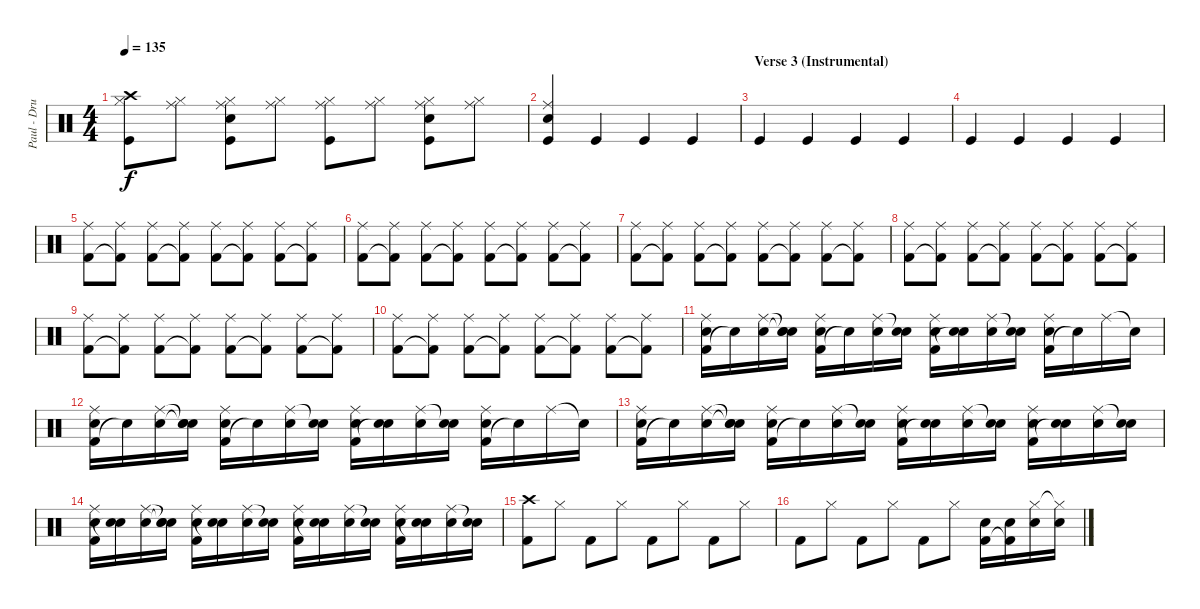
\track ("Paul - Drums" "Paul - Dru") {instrument percussion}
\staff {score}
\articulation defaults
\ts (4 4)
\tempo 135
\clef neutral
\ks c
("Kick (hit)" "Hi-Hat (closed)" "Crash high (hit)").8{dy f} ("Hi-Hat (closed)" "Ride (middle)").8 ("Kick (hit)" "Hi-Hat (closed)" "Snare (hit) 2" "Ride (middle)").8 ("Hi-Hat (closed)" "Ride (middle)").8 ("Kick (hit)" "Hi-Hat (closed)" "Ride (middle)").8 ("Hi-Hat (closed)" "Ride (middle)").8 ("Kick (hit)" "Hi-Hat (closed)" "Snare (hit) 2" "Ride (middle)").8 ("Hi-Hat (closed)" "Ride (middle)").8 |
("Kick (hit)" "Snare (hit) 2" "Ride (middle)").4 "Kick (hit)".4 "Kick (hit)".4 "Kick (hit)".4 |
\section ("" "Verse 3 (Instrumental)")
"Kick (hit)".4 "Kick (hit)".4 "Kick (hit)".4 "Kick (hit)".4 |
"Kick (hit)".4 "Kick (hit)".4 "Kick (hit)".4 "Kick (hit)".4 |
("Kick (hit) 2" "Ride (middle)").8 ("Kick (hit) 2"{t} "Ride (middle)").8 ("Kick (hit) 2" "Ride (middle)").8 ("Kick (hit) 2"{t} "Ride (middle)").8 ("Kick (hit) 2" "Ride (middle)").8 ("Kick (hit) 2"{t} "Ride (middle)").8 ("Kick (hit) 2" "Ride (middle)").8 ("Kick (hit) 2"{t} "Ride (middle)").8 |
("Kick (hit) 2" "Ride (middle)").8 ("Kick (hit) 2"{t} "Ride (middle)").8 ("Kick (hit) 2" "Ride (middle)").8 ("Kick (hit) 2"{t} "Ride (middle)").8 ("Kick (hit) 2" "Ride (middle)").8 ("Kick (hit) 2"{t} "Ride (middle)").8 ("Kick (hit) 2" "Ride (middle)").8 ("Kick (hit) 2"{t} "Ride (middle)").8 |
("Kick (hit) 2" "Ride (middle)").8 ("Kick (hit) 2"{t} "Ride (middle)").8 ("Kick (hit) 2" "Ride (middle)").8 ("Kick (hit) 2"{t} "Ride (middle)").8 ("Kick (hit) 2" "Ride (middle)").8 ("Kick (hit) 2"{t} "Ride (middle)").8 ("Kick (hit) 2" "Ride (middle)").8 ("Kick (hit) 2"{t} "Ride (middle)").8 |
("Kick (hit) 2" "Ride (middle)").8 ("Kick (hit) 2"{t} "Ride (middle)").8 ("Kick (hit) 2" "Ride (middle)").8 ("Kick (hit) 2"{t} "Ride (middle)").8 ("Kick (hit) 2" "Ride (middle)").8 ("Kick (hit) 2"{t} "Ride (middle)").8 ("Kick (hit) 2" "Ride (middle)").8 ("Kick (hit) 2"{t} "Ride (middle)").8 |
("Kick (hit) 2" "Ride (middle)").8 ("Kick (hit) 2"{t} "Ride (middle)").8 ("Kick (hit) 2" "Ride (middle)").8 ("Kick (hit) 2"{t} "Ride (middle)").8 ("Kick (hit) 2" "Ride (middle)").8 ("Kick (hit) 2"{t} "Ride (middle)").8 ("Kick (hit) 2" "Ride (middle)").8 ("Kick (hit) 2"{t} "Ride (middle)").8 |
("Kick (hit) 2" "Ride (middle)").8 ("Kick (hit) 2"{t} "Ride (middle)").8 ("Kick (hit) 2" "Ride (middle)").8 ("Kick (hit) 2"{t} "Ride (middle)").8 ("Kick (hit) 2" "Ride (middle)").8 ("Kick (hit) 2"{t} "Ride (middle)").8 ("Kick (hit) 2" "Ride (middle)").8 ("Kick (hit) 2"{t} "Ride (middle)").8 |
("Kick (hit) 2" "Ride (middle)" "Snare (hit) 2").16 "Snare (hit)"{t}.16 ("Ride (middle)" "Snare (hit) 2").16 ("Snare (hit)"{t} "Snare (hit)"{t} "Snare (hit) 2").16 ("Kick (hit) 2" "Ride (middle)" "Snare (hit) 2").16 "Snare (hit)"{t}.16 ("Ride (middle)" "Snare (hit) 2").16 ("Snare (hit)"{t} "Snare (hit) 2").16 ("Kick (hit) 2" "Ride (middle)" "Snare (hit) 2").16 ("Snare (hit)"{t} "Snare (hit) 2").16 ("Ride (middle)" "Snare (hit) 2").16 ("Snare (hit)"{t} "Snare (hit) 2").16 ("Kick (hit) 2" "Ride (middle)" "Snare (hit) 2").16 "Snare (hit)"{t}.16 "Ride (middle)".16 "Snare (hit)"{t}.16 |
("Kick (hit) 2" "Ride (middle)" "Snare (hit) 2").16 "Snare (hit)"{t}.16 ("Ride (middle)" "Snare (hit) 2").16 ("Snare (hit)"{t} "Snare (hit)"{t} "Snare (hit) 2").16 ("Kick (hit) 2" "Ride (middle)" "Snare (hit) 2").16 "Snare (hit)"{t}.16 ("Ride (middle)" "Snare (hit) 2").16 ("Snare (hit)"{t} "Snare (hit) 2").16 ("Kick (hit) 2" "Ride (middle)" "Snare (hit) 2").16 ("Snare (hit)"{t} "Snare (hit) 2").16 ("Ride (middle)" "Snare (hit) 2").16 ("Snare (hit)"{t} "Snare (hit) 2").16 ("Kick (hit) 2" "Ride (middle)" "Snare (hit) 2").16 "Snare (hit)"{t}.16 "Ride (middle)".16 "Snare (hit)"{t}.16 |
("Kick (hit) 2" "Ride (middle)" "Snare (hit) 2").16 "Snare (hit)"{t}.16 ("Ride (middle)" "Snare (hit) 2").16 ("Snare (hit)"{t} "Snare (hit)"{t} "Snare (hit) 2").16 ("Kick (hit) 2" "Ride (middle)" "Snare (hit) 2").16 "Snare (hit)"{t}.16 ("Ride (middle)" "Snare (hit) 2").16 ("Snare (hit)"{t} "Snare (hit) 2").16 ("Kick (hit) 2" "Ride (middle)" "Snare (hit) 2").16 ("Snare (hit)"{t} "Snare (hit) 2").16 ("Ride (middle)" "Snare (hit) 2").16 ("Snare (hit)"{t} "Snare (hit) 2").16 ("Kick (hit) 2" "Ride (middle)" "Snare (hit) 2").16 ("Snare (hit)"{t} "Snare (hit) 2").16 ("Ride (middle)" "Snare (hit) 2").16 ("Snare (hit)"{t} "Snare (hit) 2").16 |
("Kick (hit) 2" "Ride (middle)" "Snare (hit) 2").16 ("Snare (hit)"{t} "Snare (hit) 2").16 ("Ride (middle)" "Snare (hit) 2").16 ("Snare (hit)"{t} "Snare (hit)"{t} "Snare (hit) 2").16 ("Kick (hit) 2" "Ride (middle)" "Snare (hit) 2").16 ("Snare (hit)"{t} "Snare (hit) 2").16 ("Ride (middle)" "Snare (hit) 2").16 ("Snare (hit)"{t} "Snare (hit) 2").16 ("Kick (hit) 2" "Ride (middle)" "Snare (hit) 2").16 ("Snare (hit)"{t} "Snare (hit) 2").16 ("Ride (middle)" "Snare (hit) 2").16 ("Snare (hit)"{t} "Snare (hit) 2").16 ("Kick (hit) 2" "Ride (middle)" "Snare (hit) 2").16 ("Snare (hit)"{t} "Snare (hit) 2").16 ("Ride (middle)" "Snare (hit) 2").16 ("Snare (hit)"{t} "Snare (hit) 2").16 |
("Kick (hit) 2" "Crash high (hit)").8 "Hi-Hat (closed)".8 "Kick (hit) 2".8 "Hi-Hat (closed)".8 "Kick (hit) 2".8 "Hi-Hat (closed)".8 "Kick (hit) 2".8 "Hi-Hat (closed)".8 |
"Kick (hit) 2".8 "Hi-Hat (closed)".8 "Kick (hit) 2".8 "Hi-Hat (closed)".8 "Kick (hit) 2".8 "Hi-Hat (closed)".8 ("Kick (hit) 2" "Snare (hit) 2").16 ("Kick (hit) 2"{t} "Snare (hit) 2").16 ("Hi-Hat (closed)" "Snare (hit) 2").16 ("Hi-Hat (closed)"{t} "Snare (hit) 2").16
